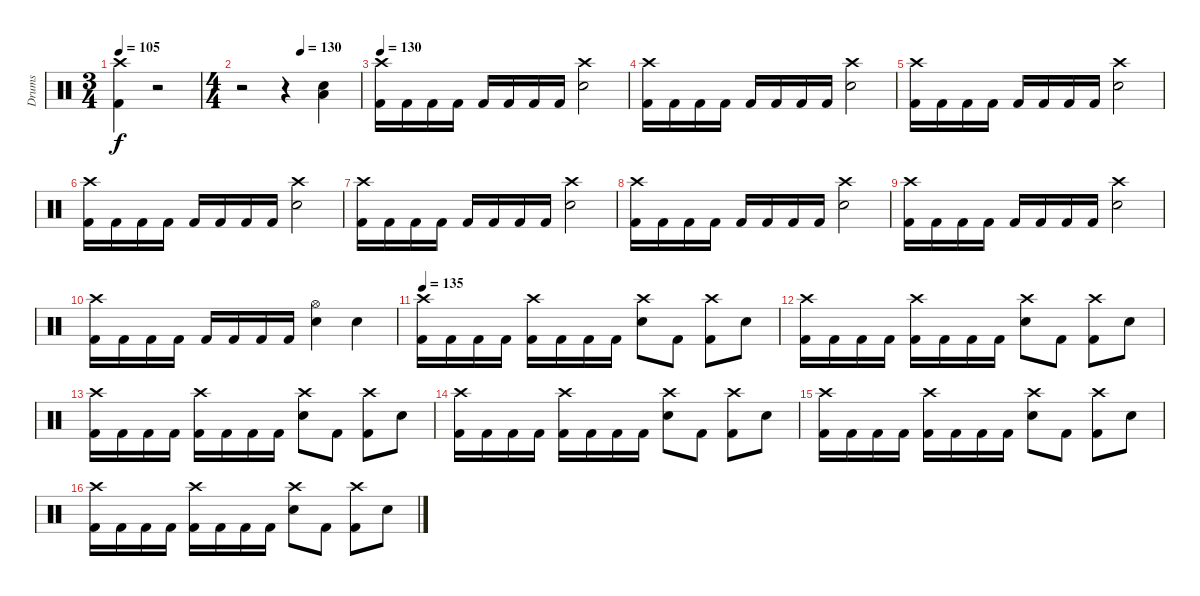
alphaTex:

\track ("Drums" "Drums") {instrument percussion}
\staff {score}
\articulation defaults
\ts (3 4)
\tempo 105
\clef neutral
\ks c
("Crash high (hit)" "Kick (hit) 2").4{dy f} r.2 |
\ts (4 4)
\tempo (130 0.5)
r.2 r.4 ("Electric Snare (hit)" "Low Floor Tom (hit)").4 |
\tempo 130
("Crash high (hit)" "Kick (hit) 2").16 "Kick (hit) 2".16 "Kick (hit) 2".16 "Kick (hit) 2".16 "Kick (hit) 2".16 "Kick (hit) 2".16 "Kick (hit) 2".16 "Kick (hit) 2".16 ("Crash high (hit)" "Electric Snare (hit)").2 |
("Crash high (hit)" "Kick (hit) 2").16 "Kick (hit) 2".16 "Kick (hit) 2".16 "Kick (hit) 2".16 "Kick (hit) 2".16 "Kick (hit) 2".16 "Kick (hit) 2".16 "Kick (hit) 2".16 ("Crash high (hit)" "Electric Snare (hit)").2 |
("Crash high (hit)" "Kick (hit) 2").16 "Kick (hit) 2".16 "Kick (hit) 2".16 "Kick (hit) 2".16 "Kick (hit) 2".16 "Kick (hit) 2".16 "Kick (hit) 2".16 "Kick (hit) 2".16 ("Crash high (hit)" "Electric Snare (hit)").2 |
("Crash high (hit)" "Kick (hit) 2").16 "Kick (hit) 2".16 "Kick (hit) 2".16 "Kick (hit) 2".16 "Kick (hit) 2".16 "Kick (hit) 2".16 "Kick (hit) 2".16 "Kick (hit) 2".16 ("Crash high (hit)" "Electric Snare (hit)").2 |
("Crash high (hit)" "Kick (hit) 2").16 "Kick (hit) 2".16 "Kick (hit) 2".16 "Kick (hit) 2".16 "Kick (hit) 2".16 "Kick (hit) 2".16 "Kick (hit) 2".16 "Kick (hit) 2".16 ("Crash high (hit)" "Electric Snare (hit)").2 |
("Crash high (hit)" "Kick (hit) 2").16 "Kick (hit) 2".16 "Kick (hit) 2".16 "Kick (hit) 2".16 "Kick (hit) 2".16 "Kick (hit) 2".16 "Kick (hit) 2".16 "Kick (hit) 2".16 ("Crash high (hit)" "Electric Snare (hit)").2 |
("Crash high (hit)" "Kick (hit) 2").16 "Kick (hit) 2".16 "Kick (hit) 2".16 "Kick (hit) 2".16 "Kick (hit) 2".16 "Kick (hit) 2".16 "Kick (hit) 2".16 "Kick (hit) 2".16 ("Crash high (hit)" "Electric Snare (hit)").2 |
("Crash high (hit)" "Kick (hit) 2").16 "Kick (hit) 2".16 "Kick (hit) 2".16 "Kick (hit) 2".16 "Kick (hit) 2".16 "Kick (hit) 2".16 "Kick (hit) 2".16 "Kick (hit) 2".16 ("Hi-Hat (open)" "Electric Snare (hit)").4 "Electric Snare (hit)".4 |
\tempo 135
("Crash high (hit)" "Kick (hit) 2").16 "Kick (hit) 2".16 "Kick (hit) 2".16 "Kick (hit) 2".16 ("Crash high (hit)" "Kick (hit) 2").16 "Kick (hit) 2".16 "Kick (hit) 2".16 "Kick (hit) 2".16 ("Crash high (hit)" "Electric Snare (hit)").8 "Kick (hit) 2".8 ("Crash high (hit)" "Kick (hit) 2").8 "Electric Snare (hit)".8 |
("Crash high (hit)" "Kick (hit) 2").16 "Kick (hit) 2".16 "Kick (hit) 2".16 "Kick (hit) 2".16 ("Crash high (hit)" "Kick (hit) 2").16 "Kick (hit) 2".16 "Kick (hit) 2".16 "Kick (hit) 2".16 ("Crash high (hit)" "Electric Snare (hit)").8 "Kick (hit) 2".8 ("Crash high (hit)" "Kick (hit) 2").8 "Electric Snare (hit)".8 |
("Crash high (hit)" "Kick (hit) 2").16 "Kick (hit) 2".16 "Kick (hit) 2".16 "Kick (hit) 2".16 ("Crash high (hit)" "Kick (hit) 2").16 "Kick (hit) 2".16 "Kick (hit) 2".16 "Kick (hit) 2".16 ("Crash high (hit)" "Electric Snare (hit)").8 "Kick (hit) 2".8 ("Crash high (hit)" "Kick (hit) 2").8 "Electric Snare (hit)".8 |
("Crash high (hit)" "Kick (hit) 2").16 "Kick (hit) 2".16 "Kick (hit) 2".16 "Kick (hit) 2".16 ("Crash high (hit)" "Kick (hit) 2").16 "Kick (hit) 2".16 "Kick (hit) 2".16 "Kick (hit) 2".16 ("Crash high (hit)" "Electric Snare (hit)").8 "Kick (hit) 2".8 ("Crash high (hit)" "Kick (hit) 2").8 "Electric Snare (hit)".8 |
("Crash high (hit)" "Kick (hit) 2").16 "Kick (hit) 2".16 "Kick (hit) 2".16 "Kick (hit) 2".16 ("Crash high (hit)" "Kick (hit) 2").16 "Kick (hit) 2".16 "Kick (hit) 2".16 "Kick (hit) 2".16 ("Crash high (hit)" "Electric Snare (hit)").8 "Kick (hit) 2".8 ("Crash high (hit)" "Kick (hit) 2").8 "Electric Snare (hit)".8 |
("Crash high (hit)" "Kick (hit) 2").16 "Kick (hit) 2".16 "Kick (hit) 2".16 "Kick (hit) 2".16 ("Crash high (hit)" "Kick (hit) 2").16 "Kick (hit) 2".16 "Kick (hit) 2".16 "Kick (hit) 2".16 ("Crash high (hit)" "Electric Snare (hit)").8 "Kick (hit) 2".8 ("Crash high (hit)" "Kick (hit) 2").8 "Electric Snare (hit)".8
